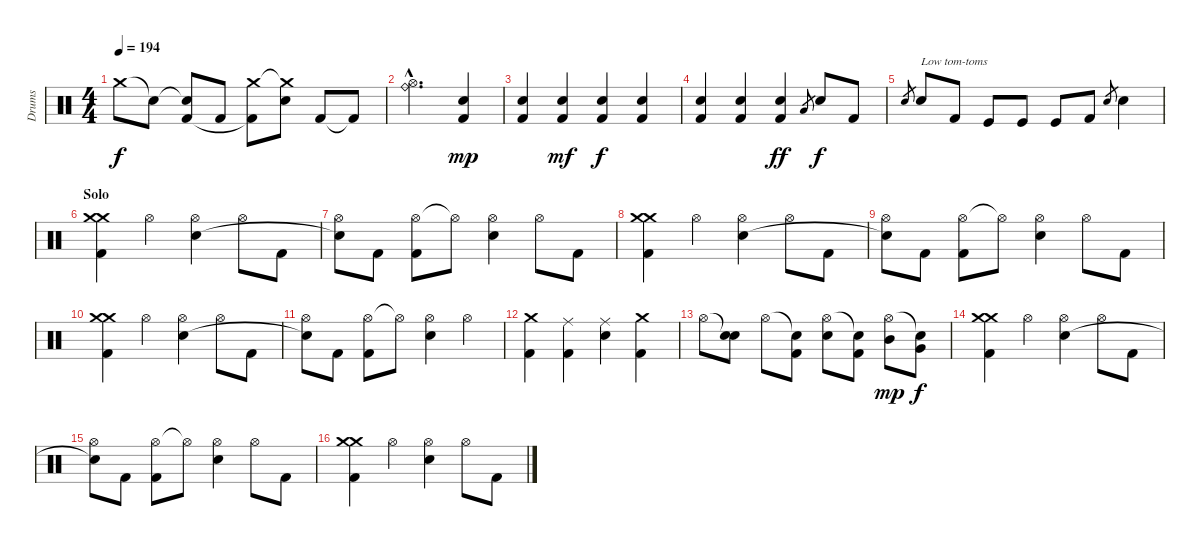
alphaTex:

\track ("Drums" "Drums") {instrument percussion}
\staff {score}
\articulation defaults
\ts (4 4)
\tempo 194
\clef neutral
\ks c "Crash medium (hit)".8{dy f} "Snare (hit)"{t}.8
("Snare (hit)"{t} "Kick (hit) 2").8 "Kick (hit) 2".8 ("Crash medium (hit)" "Kick (hit) 2"{t}).8 ("Crash medium (hit)"{t} "Electric Snare (hit)").8 "Kick (hit) 2".8 "Kick (hit) 2"{t}.8 |
("Hi-Hat (open)"{hac} "Ride (bell)"{hac}).2{d} ("Snare (hit) 2" "Kick (hit) 2").4{dy mp} |
("Snare (hit) 2" "Kick (hit) 2").4 ("Snare (hit) 2" "Kick (hit) 2").4{dy mf} ("Snare (hit) 2" "Kick (hit) 2").4{dy f} ("Snare (hit) 2" "Kick (hit) 2").4 |
("Snare (hit) 2" "Kick (hit) 2").4 ("Snare (hit) 2" "Kick (hit) 2").4 ("Snare (hit) 2" "Kick (hit) 2").4{dy ff} "Low Floor Tom (hit)".8{gr} "Snare (hit) 2".8{dy f} "Kick (hit) 2".8 |
"Snare (hit) 2".8{gr} "Snare (hit) 2".8{txt "Low tom-toms"} "Kick (hit) 2".8 "Kick (hit)".8 "Kick (hit)".8 "Kick (hit)".8 "Kick (hit) 2".8 "Snare (hit) 2".8{gr} "Snare (hit) 2".4 |
\section ("" "Solo")
("Crash medium (hit)" "Crash medium (hit)" "Kick (hit) 2").4 "Hi-Hat (open)".4 ("Hi-Hat (open)" "Snare (hit) 2").4 "Hi-Hat (open)".8 "Kick (hit) 2".8 |
("Hi-Hat (open)" "Snare (hit)"{t}).8 "Kick (hit) 2".8 ("Hi-Hat (open)" "Kick (hit) 2").8 "Hi-Hat (open)"{t}.8 ("Hi-Hat (open)" "Snare (hit) 2").4 "Hi-Hat (open)".8 "Kick (hit) 2".8 |
("Crash medium (hit)" "Crash medium (hit)" "Kick (hit) 2").4 "Hi-Hat (open)".4 ("Hi-Hat (open)" "Snare (hit) 2").4 "Hi-Hat (open)".8 "Kick (hit) 2".8 |
("Hi-Hat (open)" "Snare (hit)"{t}).8 "Kick (hit) 2".8 ("Hi-Hat (open)" "Kick (hit) 2").8 "Hi-Hat (open)"{t}.8 ("Hi-Hat (open)" "Snare (hit) 2").4 "Hi-Hat (open)".8 "Kick (hit) 2".8 |
("Crash medium (hit)" "Crash medium (hit)" "Kick (hit) 2").4 "Hi-Hat (open)".4 ("Hi-Hat (open)" "Snare (hit) 2").4 "Hi-Hat (open)".8 "Kick (hit) 2".8 |
("Hi-Hat (open)" "Snare (hit)"{t}).8 "Kick (hit) 2".8 ("Hi-Hat (open)" "Kick (hit) 2").8 "Hi-Hat (open)"{t}.8 ("Hi-Hat (open)" "Snare (hit) 2").4 "Hi-Hat (open)".4 |
("Crash medium (hit)" "Kick (hit) 2").4 ("Ride (middle)" "Kick (hit) 2").4 ("Ride (middle)" "Snare (hit) 2").4 ("Crash medium (hit)" "Kick (hit) 2").4 |
"Hi-Hat (open)".8 ("Snare (hit)"{t} "Snare (hit) 2").8 "Hi-Hat (open)".8 ("Snare (hit)"{t} "Kick (hit) 2").8 ("Hi-Hat (open)" "Snare (hit) 2").8 ("Snare (hit)"{t} "Kick (hit) 2").8 ("Hi-Hat (open)" "Mid Tom (hit)").8{dy mp} ("Snare (hit)"{t} "Very Low Tom (hit)").8{dy f} |
("Crash medium (hit)" "Crash medium (hit)" "Kick (hit) 2").4 "Hi-Hat (open)".4 ("Hi-Hat (open)" "Snare (hit) 2").4 "Hi-Hat (open)".8 "Kick (hit) 2".8 |
("Hi-Hat (open)" "Snare (hit)"{t}).8 "Kick (hit) 2".8 ("Hi-Hat (open)" "Kick (hit) 2").8 "Hi-Hat (open)"{t}.8 ("Hi-Hat (open)" "Snare (hit) 2").4 "Hi-Hat (open)".8 "Kick (hit) 2".8 |
("Crash medium (hit)" "Crash medium (hit)" "Kick (hit) 2").4 "Hi-Hat (open)".4 ("Hi-Hat (open)" "Snare (hit) 2").4 "Hi-Hat (open)".8 "Kick (hit) 2".8
